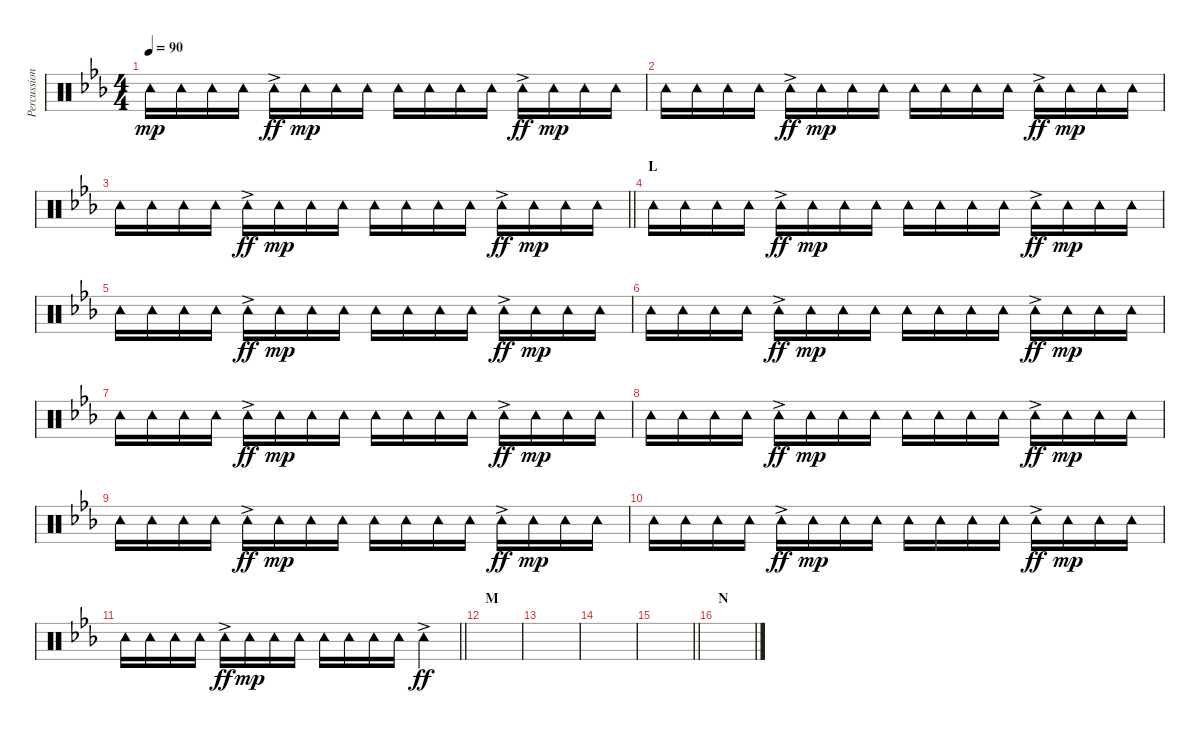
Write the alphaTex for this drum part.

\track ("Percussion" "Percussion") {instrument percussion}
\staff {score}
\articulation defaults
\ts (4 4)
\tempo 90
\clef neutral
\ks eb "Tambourine (hit)".16{dy mp} "Tambourine (hit)".16 "Tambourine (hit)".16 "Tambourine (hit)".16 "Tambourine (hit)"{ac}.16{dy ff} "Tambourine (hit)".16{dy mp} "Tambourine (hit)".16 "Tambourine (hit)".16 "Tambourine (hit)".16 "Tambourine (hit)".16 "Tambourine (hit)".16 "Tambourine (hit)".16 "Tambourine (hit)"{ac}.16{dy ff} "Tambourine (hit)".16{dy mp} "Tambourine (hit)".16 "Tambourine (hit)".16
|
"Tambourine (hit)".16 "Tambourine (hit)".16 "Tambourine (hit)".16 "Tambourine (hit)".16 "Tambourine (hit)"{ac}.16{dy ff} "Tambourine (hit)".16{dy mp} "Tambourine (hit)".16 "Tambourine (hit)".16 "Tambourine (hit)".16 "Tambourine (hit)".16 "Tambourine (hit)".16 "Tambourine (hit)".16 "Tambourine (hit)"{ac}.16{dy ff} "Tambourine (hit)".16{dy mp} "Tambourine (hit)".16 "Tambourine (hit)".16 |
\barLineRight lightlight "Tambourine (hit)".16 "Tambourine (hit)".16 "Tambourine (hit)".16 "Tambourine (hit)".16 "Tambourine (hit)"{ac}.16{dy ff} "Tambourine (hit)".16{dy mp} "Tambourine (hit)".16 "Tambourine (hit)".16 "Tambourine (hit)".16 "Tambourine (hit)".16 "Tambourine (hit)".16 "Tambourine (hit)".16 "Tambourine (hit)"{ac}.16{dy ff} "Tambourine (hit)".16{dy mp} "Tambourine (hit)".16 "Tambourine (hit)".16
|
\section ("" "L")
"Tambourine (hit)".16 "Tambourine (hit)".16 "Tambourine (hit)".16 "Tambourine (hit)".16 "Tambourine (hit)"{ac}.16{dy ff} "Tambourine (hit)".16{dy mp} "Tambourine (hit)".16 "Tambourine (hit)".16 "Tambourine (hit)".16 "Tambourine (hit)".16 "Tambourine (hit)".16 "Tambourine (hit)".16 "Tambourine (hit)"{ac}.16{dy ff} "Tambourine (hit)".16{dy mp} "Tambourine (hit)".16 "Tambourine (hit)".16 |
"Tambourine (hit)".16 "Tambourine (hit)".16 "Tambourine (hit)".16 "Tambourine (hit)".16 "Tambourine (hit)"{ac}.16{dy ff} "Tambourine (hit)".16{dy mp} "Tambourine (hit)".16 "Tambourine (hit)".16 "Tambourine (hit)".16 "Tambourine (hit)".16 "Tambourine (hit)".16 "Tambourine (hit)".16 "Tambourine (hit)"{ac}.16{dy ff} "Tambourine (hit)".16{dy mp} "Tambourine (hit)".16 "Tambourine (hit)".16 |
"Tambourine (hit)".16 "Tambourine (hit)".16 "Tambourine (hit)".16 "Tambourine (hit)".16 "Tambourine (hit)"{ac}.16{dy ff} "Tambourine (hit)".16{dy mp} "Tambourine (hit)".16 "Tambourine (hit)".16 "Tambourine (hit)".16 "Tambourine (hit)".16 "Tambourine (hit)".16 "Tambourine (hit)".16 "Tambourine (hit)"{ac}.16{dy ff} "Tambourine (hit)".16{dy mp} "Tambourine (hit)".16 "Tambourine (hit)".16 |
"Tambourine (hit)".16 "Tambourine (hit)".16 "Tambourine (hit)".16 "Tambourine (hit)".16 "Tambourine (hit)"{ac}.16{dy ff} "Tambourine (hit)".16{dy mp} "Tambourine (hit)".16 "Tambourine (hit)".16 "Tambourine (hit)".16 "Tambourine (hit)".16 "Tambourine (hit)".16 "Tambourine (hit)".16 "Tambourine (hit)"{ac}.16{dy ff} "Tambourine (hit)".16{dy mp} "Tambourine (hit)".16 "Tambourine (hit)".16 |
"Tambourine (hit)".16 "Tambourine (hit)".16 "Tambourine (hit)".16 "Tambourine (hit)".16 "Tambourine (hit)"{ac}.16{dy ff} "Tambourine (hit)".16{dy mp} "Tambourine (hit)".16 "Tambourine (hit)".16 "Tambourine (hit)".16 "Tambourine (hit)".16 "Tambourine (hit)".16 "Tambourine (hit)".16 "Tambourine (hit)"{ac}.16{dy ff} "Tambourine (hit)".16{dy mp} "Tambourine (hit)".16 "Tambourine (hit)".16 |
"Tambourine (hit)".16 "Tambourine (hit)".16 "Tambourine (hit)".16 "Tambourine (hit)".16 "Tambourine (hit)"{ac}.16{dy ff} "Tambourine (hit)".16{dy mp} "Tambourine (hit)".16 "Tambourine (hit)".16 "Tambourine (hit)".16 "Tambourine (hit)".16 "Tambourine (hit)".16 "Tambourine (hit)".16 "Tambourine (hit)"{ac}.16{dy ff} "Tambourine (hit)".16{dy mp} "Tambourine (hit)".16 "Tambourine (hit)".16 |
"Tambourine (hit)".16 "Tambourine (hit)".16 "Tambourine (hit)".16 "Tambourine (hit)".16 "Tambourine (hit)"{ac}.16{dy ff} "Tambourine (hit)".16{dy mp} "Tambourine (hit)".16 "Tambourine (hit)".16 "Tambourine (hit)".16 "Tambourine (hit)".16 "Tambourine (hit)".16 "Tambourine (hit)".16 "Tambourine (hit)"{ac}.16{dy ff} "Tambourine (hit)".16{dy mp} "Tambourine (hit)".16 "Tambourine (hit)".16 |
\barLineRight lightlight "Tambourine (hit)".16 "Tambourine (hit)".16 "Tambourine (hit)".16 "Tambourine (hit)".16 "Tambourine (hit)"{ac}.16{dy ff} "Tambourine (hit)".16{dy mp} "Tambourine (hit)".16 "Tambourine (hit)".16 "Tambourine (hit)".16 "Tambourine (hit)".16 "Tambourine (hit)".16 "Tambourine (hit)".16 "Tambourine (hit)"{ac}.4{dy ff}
|
\section ("" "M")
|
|
|
\barLineRight lightlight
|
\section ("" "N")
